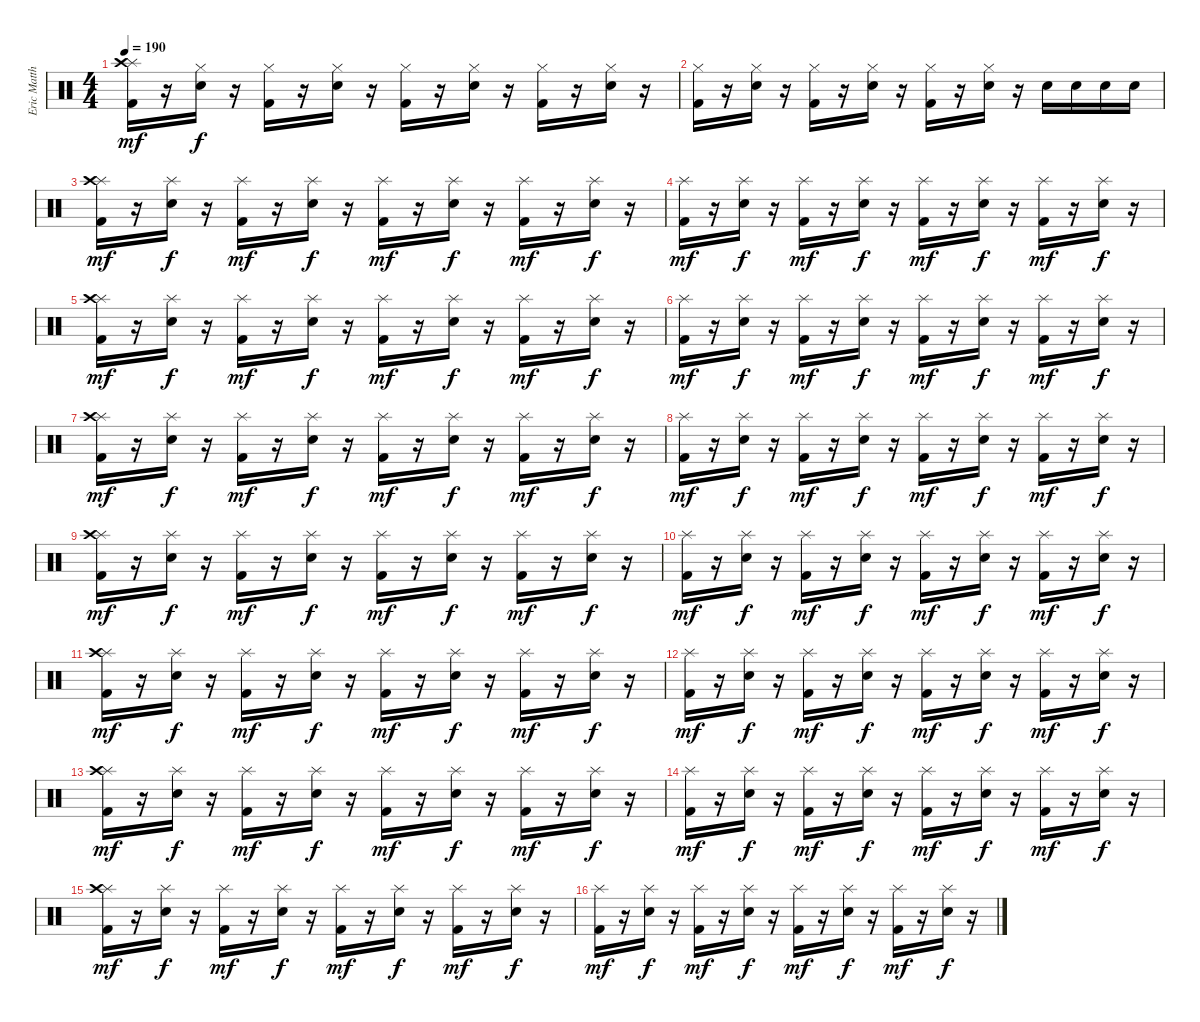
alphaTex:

\track ("Eric Matthews (drums)" "Eric Matth") {instrument percussion}
\staff {score}
\articulation defaults
\ts (4 4)
\tempo 190
\clef neutral
\ks c
("Splash (hit)" "Crash high (hit)" "Kick (hit) 2").16{dy mf} r.16 ("Hi-Hat (closed)" "Snare (hit) 2").16{dy f} r.16 ("Hi-Hat (closed)" "Kick (hit) 2").16 r.16 ("Hi-Hat (closed)" "Snare (hit) 2").16 r.16 ("Hi-Hat (closed)" "Kick (hit) 2").16 r.16 ("Hi-Hat (closed)" "Snare (hit) 2").16 r.16 ("Hi-Hat (closed)" "Kick (hit) 2").16 r.16 ("Hi-Hat (closed)" "Snare (hit) 2").16 r.16 |
("Hi-Hat (closed)" "Kick (hit) 2").16 r.16 ("Hi-Hat (closed)" "Snare (hit) 2").16 r.16 ("Hi-Hat (closed)" "Kick (hit) 2").16 r.16 ("Hi-Hat (closed)" "Snare (hit) 2").16 r.16 ("Hi-Hat (closed)" "Kick (hit) 2").16 r.16 ("Hi-Hat (closed)" "Snare (hit) 2").16 r.16 "Snare (hit) 2".16 "Snare (hit) 2".16 "Snare (hit) 2".16 "Snare (hit) 2".16 |
("Splash (hit)" "Crash high (hit)" "Kick (hit) 2").16{dy mf} r.16 ("Splash (hit)" "Snare (hit) 2").16{dy f} r.16 ("Splash (hit)" "Kick (hit) 2").16{dy mf} r.16 ("Splash (hit)" "Snare (hit) 2").16{dy f} r.16 ("Splash (hit)" "Kick (hit) 2").16{dy mf} r.16 ("Splash (hit)" "Snare (hit) 2").16{dy f} r.16 ("Splash (hit)" "Kick (hit) 2").16{dy mf} r.16 ("Splash (hit)" "Snare (hit) 2").16{dy f} r.16 |
("Splash (hit)" "Kick (hit) 2").16{dy mf} r.16 ("Splash (hit)" "Snare (hit) 2").16{dy f} r.16 ("Splash (hit)" "Kick (hit) 2").16{dy mf} r.16 ("Splash (hit)" "Snare (hit) 2").16{dy f} r.16 ("Splash (hit)" "Kick (hit) 2").16{dy mf} r.16 ("Splash (hit)" "Snare (hit) 2").16{dy f} r.16 ("Splash (hit)" "Kick (hit) 2").16{dy mf} r.16 ("Splash (hit)" "Snare (hit) 2").16{dy f} r.16 |
("Splash (hit)" "Crash high (hit)" "Kick (hit) 2").16{dy mf} r.16 ("Splash (hit)" "Snare (hit) 2").16{dy f} r.16 ("Splash (hit)" "Kick (hit) 2").16{dy mf} r.16 ("Splash (hit)" "Snare (hit) 2").16{dy f} r.16 ("Splash (hit)" "Kick (hit) 2").16{dy mf} r.16 ("Splash (hit)" "Snare (hit) 2").16{dy f} r.16 ("Splash (hit)" "Kick (hit) 2").16{dy mf} r.16 ("Splash (hit)" "Snare (hit) 2").16{dy f} r.16 |
("Splash (hit)" "Kick (hit) 2").16{dy mf} r.16 ("Splash (hit)" "Snare (hit) 2").16{dy f} r.16 ("Splash (hit)" "Kick (hit) 2").16{dy mf} r.16 ("Splash (hit)" "Snare (hit) 2").16{dy f} r.16 ("Splash (hit)" "Kick (hit) 2").16{dy mf} r.16 ("Splash (hit)" "Snare (hit) 2").16{dy f} r.16 ("Splash (hit)" "Kick (hit) 2").16{dy mf} r.16 ("Splash (hit)" "Snare (hit) 2").16{dy f} r.16 |
("Splash (hit)" "Crash high (hit)" "Kick (hit) 2").16{dy mf} r.16 ("Splash (hit)" "Snare (hit) 2").16{dy f} r.16 ("Splash (hit)" "Kick (hit) 2").16{dy mf} r.16 ("Splash (hit)" "Snare (hit) 2").16{dy f} r.16 ("Splash (hit)" "Kick (hit) 2").16{dy mf} r.16 ("Splash (hit)" "Snare (hit) 2").16{dy f} r.16 ("Splash (hit)" "Kick (hit) 2").16{dy mf} r.16 ("Splash (hit)" "Snare (hit) 2").16{dy f} r.16 |
("Splash (hit)" "Kick (hit) 2").16{dy mf} r.16 ("Splash (hit)" "Snare (hit) 2").16{dy f} r.16 ("Splash (hit)" "Kick (hit) 2").16{dy mf} r.16 ("Splash (hit)" "Snare (hit) 2").16{dy f} r.16 ("Splash (hit)" "Kick (hit) 2").16{dy mf} r.16 ("Splash (hit)" "Snare (hit) 2").16{dy f} r.16 ("Splash (hit)" "Kick (hit) 2").16{dy mf} r.16 ("Splash (hit)" "Snare (hit) 2").16{dy f} r.16 |
("Splash (hit)" "Crash high (hit)" "Kick (hit) 2").16{dy mf} r.16 ("Splash (hit)" "Snare (hit) 2").16{dy f} r.16 ("Splash (hit)" "Kick (hit) 2").16{dy mf} r.16 ("Splash (hit)" "Snare (hit) 2").16{dy f} r.16 ("Splash (hit)" "Kick (hit) 2").16{dy mf} r.16 ("Splash (hit)" "Snare (hit) 2").16{dy f} r.16 ("Splash (hit)" "Kick (hit) 2").16{dy mf} r.16 ("Splash (hit)" "Snare (hit) 2").16{dy f} r.16 |
("Splash (hit)" "Kick (hit) 2").16{dy mf} r.16 ("Splash (hit)" "Snare (hit) 2").16{dy f} r.16 ("Splash (hit)" "Kick (hit) 2").16{dy mf} r.16 ("Splash (hit)" "Snare (hit) 2").16{dy f} r.16 ("Splash (hit)" "Kick (hit) 2").16{dy mf} r.16 ("Splash (hit)" "Snare (hit) 2").16{dy f} r.16 ("Splash (hit)" "Kick (hit) 2").16{dy mf} r.16 ("Splash (hit)" "Snare (hit) 2").16{dy f} r.16 |
("Splash (hit)" "Crash high (hit)" "Kick (hit) 2").16{dy mf} r.16 ("Splash (hit)" "Snare (hit) 2").16{dy f} r.16 ("Splash (hit)" "Kick (hit) 2").16{dy mf} r.16 ("Splash (hit)" "Snare (hit) 2").16{dy f} r.16 ("Splash (hit)" "Kick (hit) 2").16{dy mf} r.16 ("Splash (hit)" "Snare (hit) 2").16{dy f} r.16 ("Splash (hit)" "Kick (hit) 2").16{dy mf} r.16 ("Splash (hit)" "Snare (hit) 2").16{dy f} r.16 |
("Splash (hit)" "Kick (hit) 2").16{dy mf} r.16 ("Splash (hit)" "Snare (hit) 2").16{dy f} r.16 ("Splash (hit)" "Kick (hit) 2").16{dy mf} r.16 ("Splash (hit)" "Snare (hit) 2").16{dy f} r.16 ("Splash (hit)" "Kick (hit) 2").16{dy mf} r.16 ("Splash (hit)" "Snare (hit) 2").16{dy f} r.16 ("Splash (hit)" "Kick (hit) 2").16{dy mf} r.16 ("Splash (hit)" "Snare (hit) 2").16{dy f} r.16 |
("Splash (hit)" "Crash high (hit)" "Kick (hit) 2").16{dy mf} r.16 ("Splash (hit)" "Snare (hit) 2").16{dy f} r.16 ("Splash (hit)" "Kick (hit) 2").16{dy mf} r.16 ("Splash (hit)" "Snare (hit) 2").16{dy f} r.16 ("Splash (hit)" "Kick (hit) 2").16{dy mf} r.16 ("Splash (hit)" "Snare (hit) 2").16{dy f} r.16 ("Splash (hit)" "Kick (hit) 2").16{dy mf} r.16 ("Splash (hit)" "Snare (hit) 2").16{dy f} r.16 |
("Splash (hit)" "Kick (hit) 2").16{dy mf} r.16 ("Splash (hit)" "Snare (hit) 2").16{dy f} r.16 ("Splash (hit)" "Kick (hit) 2").16{dy mf} r.16 ("Splash (hit)" "Snare (hit) 2").16{dy f} r.16 ("Splash (hit)" "Kick (hit) 2").16{dy mf} r.16 ("Splash (hit)" "Snare (hit) 2").16{dy f} r.16 ("Splash (hit)" "Kick (hit) 2").16{dy mf} r.16 ("Splash (hit)" "Snare (hit) 2").16{dy f} r.16 |
("Splash (hit)" "Crash high (hit)" "Kick (hit) 2").16{dy mf} r.16 ("Splash (hit)" "Snare (hit) 2").16{dy f} r.16 ("Splash (hit)" "Kick (hit) 2").16{dy mf} r.16 ("Splash (hit)" "Snare (hit) 2").16{dy f} r.16 ("Splash (hit)" "Kick (hit) 2").16{dy mf} r.16 ("Splash (hit)" "Snare (hit) 2").16{dy f} r.16 ("Splash (hit)" "Kick (hit) 2").16{dy mf} r.16 ("Splash (hit)" "Snare (hit) 2").16{dy f} r.16 |
("Splash (hit)" "Kick (hit) 2").16{dy mf} r.16 ("Splash (hit)" "Snare (hit) 2").16{dy f} r.16 ("Splash (hit)" "Kick (hit) 2").16{dy mf} r.16 ("Splash (hit)" "Snare (hit) 2").16{dy f} r.16 ("Splash (hit)" "Kick (hit) 2").16{dy mf} r.16 ("Splash (hit)" "Snare (hit) 2").16{dy f} r.16 ("Splash (hit)" "Kick (hit) 2").16{dy mf} r.16 ("Splash (hit)" "Snare (hit) 2").16{dy f} r.16
